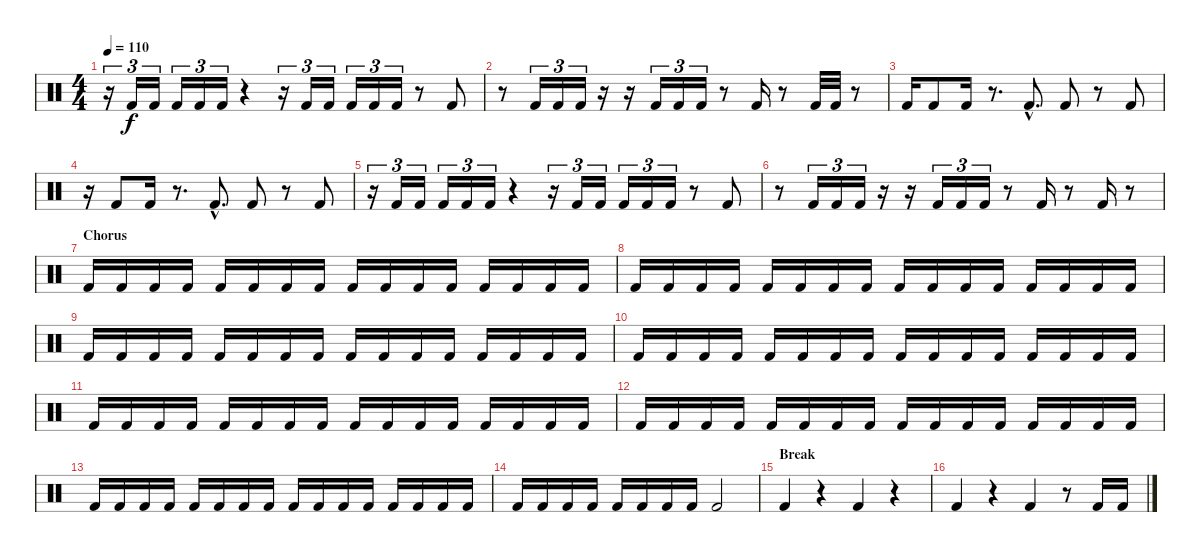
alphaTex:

\track "" {instrument percussion}
\staff {score}
\articulation defaults
\ts (4 4)
\tempo 110
\clef neutral
\ks c
r.16{tu (3 2) dy f} "Kick (hit) 2".16{tu (3 2)} "Kick (hit) 2".16{tu (3 2)} "Kick (hit) 2".16{tu (3 2)} "Kick (hit) 2".16{tu (3 2)} "Kick (hit) 2".16{tu (3 2)} r.4 r.16{tu (3 2)} "Kick (hit) 2".16{tu (3 2)} "Kick (hit) 2".16{tu (3 2)} "Kick (hit) 2".16{tu (3 2)} "Kick (hit) 2".16{tu (3 2)} "Kick (hit) 2".16{tu (3 2)} r.8 "Kick (hit) 2".8 |
r.8 "Kick (hit) 2".16{tu (3 2)} "Kick (hit) 2".16{tu (3 2)} "Kick (hit) 2".16{tu (3 2)} r.16 r.16 "Kick (hit) 2".16{tu (3 2)} "Kick (hit) 2".16{tu (3 2)} "Kick (hit) 2".16{tu (3 2)} r.8 "Kick (hit) 2".16 r.8 "Kick (hit) 2".32 "Kick (hit) 2".32 r.8 |
"Kick (hit) 2".16 "Kick (hit) 2".8 "Kick (hit) 2".16 r.8{d} "Kick (hit) 2"{hac}.8{d} "Kick (hit) 2".8 r.8 "Kick (hit) 2".8 |
r.16 "Kick (hit) 2".8 "Kick (hit) 2".16 r.8{d} "Kick (hit) 2"{hac}.8{d} "Kick (hit) 2".8 r.8 "Kick (hit) 2".8 |
r.16{tu (3 2)} "Kick (hit) 2".16{tu (3 2)} "Kick (hit) 2".16{tu (3 2)} "Kick (hit) 2".16{tu (3 2)} "Kick (hit) 2".16{tu (3 2)} "Kick (hit) 2".16{tu (3 2)} r.4 r.16{tu (3 2)} "Kick (hit) 2".16{tu (3 2)} "Kick (hit) 2".16{tu (3 2)} "Kick (hit) 2".16{tu (3 2)} "Kick (hit) 2".16{tu (3 2)} "Kick (hit) 2".16{tu (3 2)} r.8 "Kick (hit) 2".8 |
r.8 "Kick (hit) 2".16{tu (3 2)} "Kick (hit) 2".16{tu (3 2)} "Kick (hit) 2".16{tu (3 2)} r.16 r.16 "Kick (hit) 2".16{tu (3 2)} "Kick (hit) 2".16{tu (3 2)} "Kick (hit) 2".16{tu (3 2)} r.8 "Kick (hit) 2".16 r.8 "Kick (hit) 2".16 r.8 |
\section ("" "Chorus")
"Kick (hit) 2".16 "Kick (hit) 2".16 "Kick (hit) 2".16 "Kick (hit) 2".16 "Kick (hit) 2".16 "Kick (hit) 2".16 "Kick (hit) 2".16 "Kick (hit) 2".16 "Kick (hit) 2".16 "Kick (hit) 2".16 "Kick (hit) 2".16 "Kick (hit) 2".16 "Kick (hit) 2".16 "Kick (hit) 2".16 "Kick (hit) 2".16 "Kick (hit) 2".16 |
"Kick (hit) 2".16 "Kick (hit) 2".16 "Kick (hit) 2".16 "Kick (hit) 2".16 "Kick (hit) 2".16 "Kick (hit) 2".16 "Kick (hit) 2".16 "Kick (hit) 2".16 "Kick (hit) 2".16 "Kick (hit) 2".16 "Kick (hit) 2".16 "Kick (hit) 2".16 "Kick (hit) 2".16 "Kick (hit) 2".16 "Kick (hit) 2".16 "Kick (hit) 2".16 |
"Kick (hit) 2".16 "Kick (hit) 2".16 "Kick (hit) 2".16 "Kick (hit) 2".16 "Kick (hit) 2".16 "Kick (hit) 2".16 "Kick (hit) 2".16 "Kick (hit) 2".16 "Kick (hit) 2".16 "Kick (hit) 2".16 "Kick (hit) 2".16 "Kick (hit) 2".16 "Kick (hit) 2".16 "Kick (hit) 2".16 "Kick (hit) 2".16 "Kick (hit) 2".16 |
"Kick (hit) 2".16 "Kick (hit) 2".16 "Kick (hit) 2".16 "Kick (hit) 2".16 "Kick (hit) 2".16 "Kick (hit) 2".16 "Kick (hit) 2".16 "Kick (hit) 2".16 "Kick (hit) 2".16 "Kick (hit) 2".16 "Kick (hit) 2".16 "Kick (hit) 2".16 "Kick (hit) 2".16 "Kick (hit) 2".16 "Kick (hit) 2".16 "Kick (hit) 2".16 |
"Kick (hit) 2".16 "Kick (hit) 2".16 "Kick (hit) 2".16 "Kick (hit) 2".16 "Kick (hit) 2".16 "Kick (hit) 2".16 "Kick (hit) 2".16 "Kick (hit) 2".16 "Kick (hit) 2".16 "Kick (hit) 2".16 "Kick (hit) 2".16 "Kick (hit) 2".16 "Kick (hit) 2".16 "Kick (hit) 2".16 "Kick (hit) 2".16 "Kick (hit) 2".16 |
"Kick (hit) 2".16 "Kick (hit) 2".16 "Kick (hit) 2".16 "Kick (hit) 2".16 "Kick (hit) 2".16 "Kick (hit) 2".16 "Kick (hit) 2".16 "Kick (hit) 2".16 "Kick (hit) 2".16 "Kick (hit) 2".16 "Kick (hit) 2".16 "Kick (hit) 2".16 "Kick (hit) 2".16 "Kick (hit) 2".16 "Kick (hit) 2".16 "Kick (hit) 2".16 |
"Kick (hit) 2".16 "Kick (hit) 2".16 "Kick (hit) 2".16 "Kick (hit) 2".16 "Kick (hit) 2".16 "Kick (hit) 2".16 "Kick (hit) 2".16 "Kick (hit) 2".16 "Kick (hit) 2".16 "Kick (hit) 2".16 "Kick (hit) 2".16 "Kick (hit) 2".16 "Kick (hit) 2".16 "Kick (hit) 2".16 "Kick (hit) 2".16 "Kick (hit) 2".16 |
"Kick (hit) 2".16 "Kick (hit) 2".16 "Kick (hit) 2".16 "Kick (hit) 2".16 "Kick (hit) 2".16 "Kick (hit) 2".16 "Kick (hit) 2".16 "Kick (hit) 2".16 "Kick (hit) 2".2 |
\section ("" "Break")
"Kick (hit) 2".4 r.4 "Kick (hit) 2".4 r.4 |
"Kick (hit) 2".4 r.4 "Kick (hit) 2".4 r.8 "Kick (hit) 2".16 "Kick (hit) 2".16
